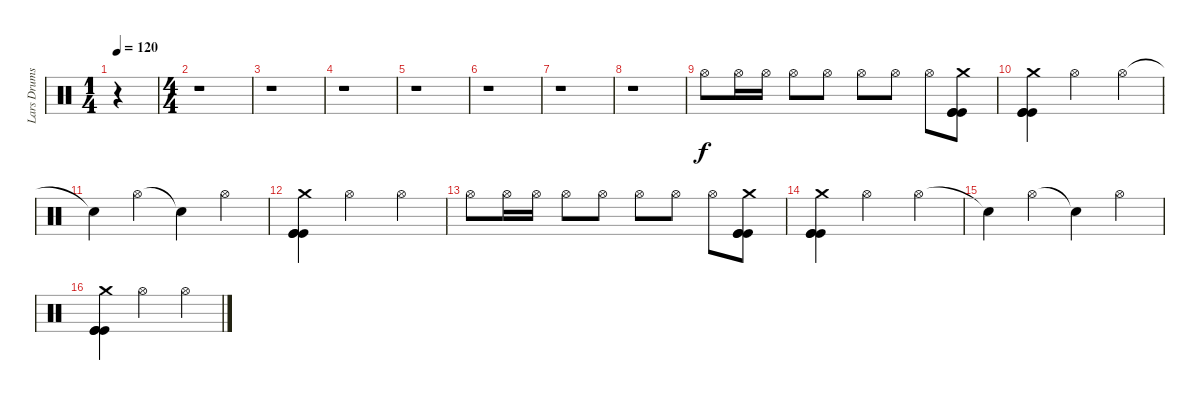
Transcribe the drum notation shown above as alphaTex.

\track ("Lars Drums" "Lars Drums") {instrument percussion}
\staff {score}
\articulation defaults
\ts (1 4)
\tempo 120
\clef neutral
\ks c
r.4{dy f} |
\ts (4 4)
r.1 |
r.1 |
r.1 |
r.1 |
r.1 |
r.1 |
r.1 |
"Hi-Hat (open)".8 "Hi-Hat (open)".16 "Hi-Hat (open)".16 "Hi-Hat (open)".8 "Hi-Hat (open)".8 "Hi-Hat (open)".8 "Hi-Hat (open)".8 "Hi-Hat (open)".8 ("Kick (hit)" "Kick (hit)" "Kick (hit)" "Crash medium (hit)").8 |
("Kick (hit)" "Kick (hit)" "Kick (hit)" "Crash medium (hit)").4 "Hi-Hat (open)".2 "Hi-Hat (open)".4 |
"Snare (hit)"{t}.4 "Hi-Hat (open)".4 "Snare (hit)"{t}.4 "Hi-Hat (open)".4 |
("Kick (hit)" "Kick (hit)" "Kick (hit)" "Crash medium (hit)").4 "Hi-Hat (open)".2 "Hi-Hat (open)".4 |
"Hi-Hat (open)".8 "Hi-Hat (open)".16 "Hi-Hat (open)".16 "Hi-Hat (open)".8 "Hi-Hat (open)".8 "Hi-Hat (open)".8 "Hi-Hat (open)".8 "Hi-Hat (open)".8 ("Kick (hit)" "Kick (hit)" "Kick (hit)" "Crash medium (hit)").8 |
("Kick (hit)" "Kick (hit)" "Kick (hit)" "Crash medium (hit)").4 "Hi-Hat (open)".2 "Hi-Hat (open)".4 |
"Snare (hit)"{t}.4 "Hi-Hat (open)".4 "Snare (hit)"{t}.4 "Hi-Hat (open)".4 |
("Kick (hit)" "Kick (hit)" "Kick (hit)" "Crash medium (hit)").4 "Hi-Hat (open)".2 "Hi-Hat (open)".4
